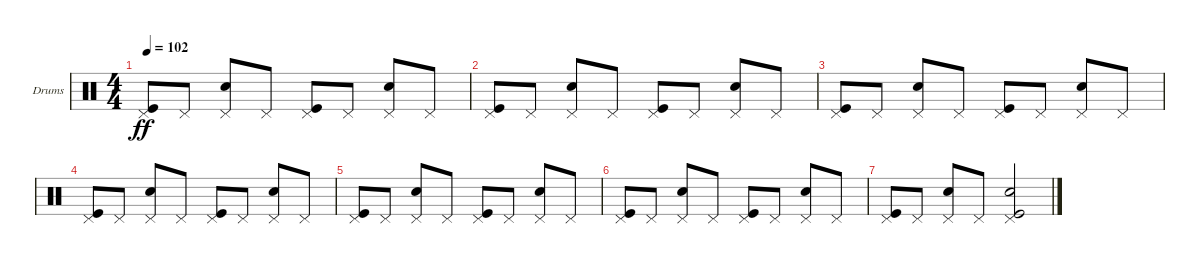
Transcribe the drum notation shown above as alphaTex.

\defaultSystemsLayout 4
\bracketExtendMode groupsimilarinstruments
\firstSystemTrackNameOrientation horizontal
\otherSystemsTrackNameOrientation horizontal
\track ("Е. Кулаков" "Drums") {instrument percussion}
\staff {score}
\articulation defaults
\ts (4 4)
\tempo 102
\clef neutral
\ks c
("Pedal Hi-Hat (hit)" "Kick (hit)").8{dy ff} "Pedal Hi-Hat (hit)".8 ("Pedal Hi-Hat (hit)" "Snare (hit) 2").8 "Pedal Hi-Hat (hit)".8 ("Pedal Hi-Hat (hit)" "Kick (hit)").8 "Pedal Hi-Hat (hit)".8 ("Pedal Hi-Hat (hit)" "Snare (hit) 2").8 "Pedal Hi-Hat (hit)".8 |
("Pedal Hi-Hat (hit)" "Kick (hit)").8 "Pedal Hi-Hat (hit)".8 ("Pedal Hi-Hat (hit)" "Snare (hit) 2").8 "Pedal Hi-Hat (hit)".8 ("Pedal Hi-Hat (hit)" "Kick (hit)").8 "Pedal Hi-Hat (hit)".8 ("Pedal Hi-Hat (hit)" "Snare (hit) 2").8 "Pedal Hi-Hat (hit)".8 |
("Pedal Hi-Hat (hit)" "Kick (hit)").8 "Pedal Hi-Hat (hit)".8 ("Pedal Hi-Hat (hit)" "Snare (hit) 2").8 "Pedal Hi-Hat (hit)".8 ("Pedal Hi-Hat (hit)" "Kick (hit)").8 "Pedal Hi-Hat (hit)".8 ("Pedal Hi-Hat (hit)" "Snare (hit) 2").8 "Pedal Hi-Hat (hit)".8 |
("Pedal Hi-Hat (hit)" "Kick (hit)").8 "Pedal Hi-Hat (hit)".8 ("Pedal Hi-Hat (hit)" "Snare (hit) 2").8 "Pedal Hi-Hat (hit)".8 ("Pedal Hi-Hat (hit)" "Kick (hit)").8 "Pedal Hi-Hat (hit)".8 ("Pedal Hi-Hat (hit)" "Snare (hit) 2").8 "Pedal Hi-Hat (hit)".8 |
("Pedal Hi-Hat (hit)" "Kick (hit)").8 "Pedal Hi-Hat (hit)".8 ("Pedal Hi-Hat (hit)" "Snare (hit) 2").8 "Pedal Hi-Hat (hit)".8 ("Pedal Hi-Hat (hit)" "Kick (hit)").8 "Pedal Hi-Hat (hit)".8 ("Pedal Hi-Hat (hit)" "Snare (hit) 2").8 "Pedal Hi-Hat (hit)".8 |
("Pedal Hi-Hat (hit)" "Kick (hit)").8 "Pedal Hi-Hat (hit)".8 ("Pedal Hi-Hat (hit)" "Snare (hit) 2").8 "Pedal Hi-Hat (hit)".8 ("Pedal Hi-Hat (hit)" "Kick (hit)").8 "Pedal Hi-Hat (hit)".8 ("Pedal Hi-Hat (hit)" "Snare (hit) 2").8 "Pedal Hi-Hat (hit)".8 |
("Pedal Hi-Hat (hit)" "Kick (hit)").8 "Pedal Hi-Hat (hit)".8 ("Pedal Hi-Hat (hit)" "Snare (hit) 2").8 "Pedal Hi-Hat (hit)".8 ("Pedal Hi-Hat (hit)" "Kick (hit)" "Snare (hit) 2").2
